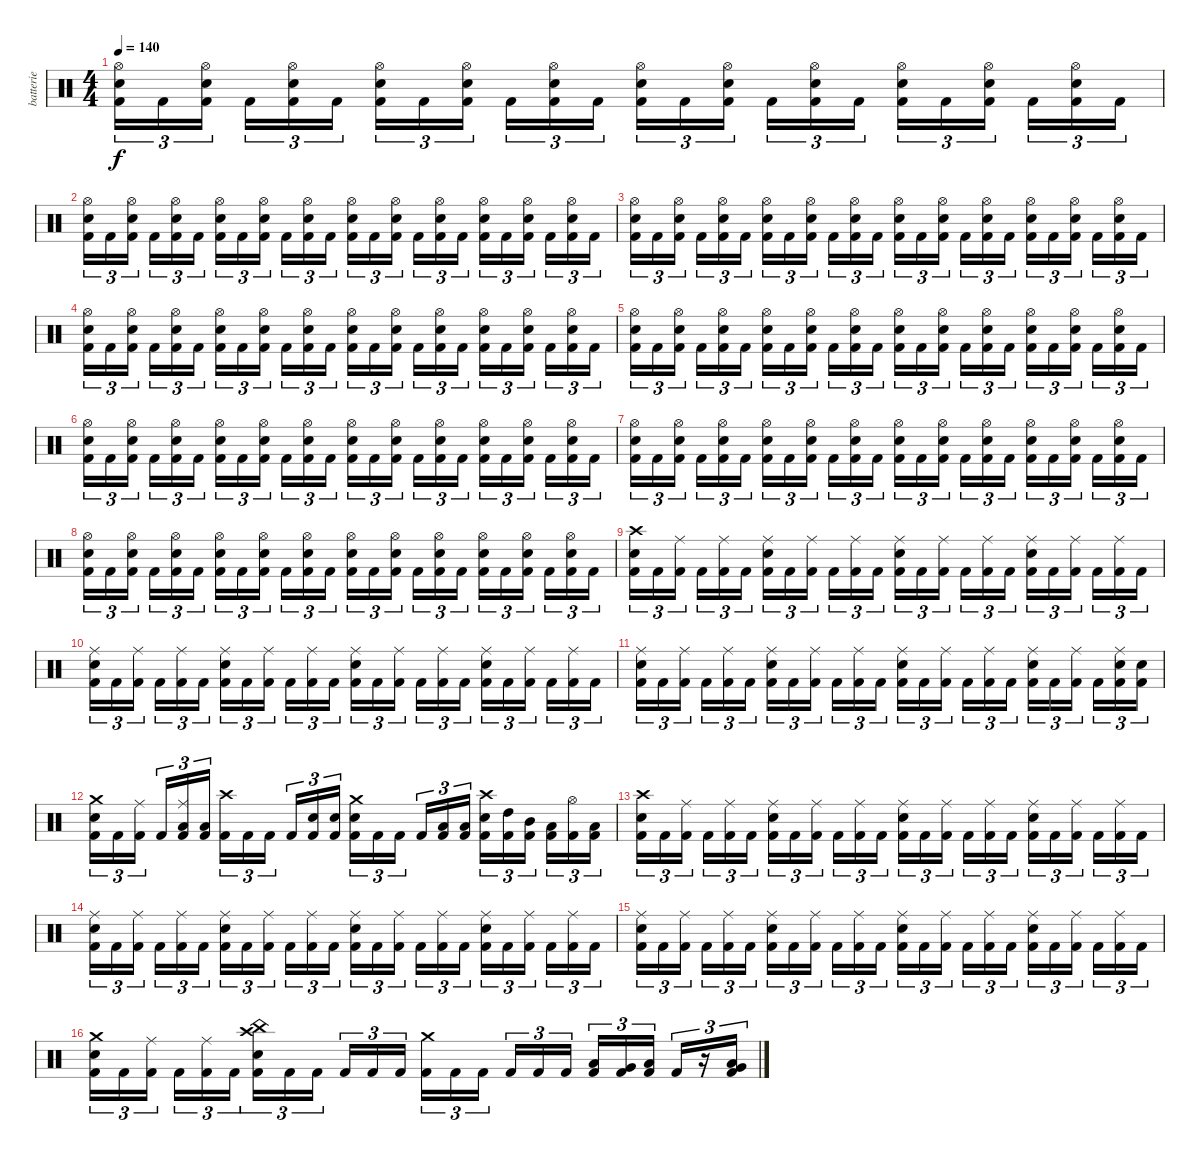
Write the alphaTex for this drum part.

\track ("batterie" "batterie") {instrument percussion}
\staff {score}
\articulation defaults
\ts (4 4)
\tempo 140
\clef neutral
\ks c
("Hi-Hat (open)" "Electric Snare (hit)" "Kick (hit) 2").16{tu (3 2) dy f} "Kick (hit) 2".16{tu (3 2)} ("Hi-Hat (open)" "Electric Snare (hit)" "Kick (hit) 2").16{tu (3 2)} "Kick (hit) 2".16{tu (3 2)} ("Hi-Hat (open)" "Electric Snare (hit)" "Kick (hit) 2").16{tu (3 2)} "Kick (hit) 2".16{tu (3 2)} ("Hi-Hat (open)" "Electric Snare (hit)" "Kick (hit) 2").16{tu (3 2)} "Kick (hit) 2".16{tu (3 2)} ("Hi-Hat (open)" "Electric Snare (hit)" "Kick (hit) 2").16{tu (3 2)} "Kick (hit) 2".16{tu (3 2)} ("Hi-Hat (open)" "Electric Snare (hit)" "Kick (hit) 2").16{tu (3 2)} "Kick (hit) 2".16{tu (3 2)} ("Hi-Hat (open)" "Electric Snare (hit)" "Kick (hit) 2").16{tu (3 2)} "Kick (hit) 2".16{tu (3 2)} ("Hi-Hat (open)" "Electric Snare (hit)" "Kick (hit) 2").16{tu (3 2)} "Kick (hit) 2".16{tu (3 2)} ("Hi-Hat (open)" "Electric Snare (hit)" "Kick (hit) 2").16{tu (3 2)} "Kick (hit) 2".16{tu (3 2)} ("Hi-Hat (open)" "Electric Snare (hit)" "Kick (hit) 2").16{tu (3 2)} "Kick (hit) 2".16{tu (3 2)} ("Hi-Hat (open)" "Electric Snare (hit)" "Kick (hit) 2").16{tu (3 2)} "Kick (hit) 2".16{tu (3 2)} ("Hi-Hat (open)" "Electric Snare (hit)" "Kick (hit) 2").16{tu (3 2)} "Kick (hit) 2".16{tu (3 2)} |
("Hi-Hat (open)" "Electric Snare (hit)" "Kick (hit) 2").16{tu (3 2)} "Kick (hit) 2".16{tu (3 2)} ("Hi-Hat (open)" "Electric Snare (hit)" "Kick (hit) 2").16{tu (3 2)} "Kick (hit) 2".16{tu (3 2)} ("Hi-Hat (open)" "Electric Snare (hit)" "Kick (hit) 2").16{tu (3 2)} "Kick (hit) 2".16{tu (3 2)} ("Hi-Hat (open)" "Electric Snare (hit)" "Kick (hit) 2").16{tu (3 2)} "Kick (hit) 2".16{tu (3 2)} ("Hi-Hat (open)" "Electric Snare (hit)" "Kick (hit) 2").16{tu (3 2)} "Kick (hit) 2".16{tu (3 2)} ("Hi-Hat (open)" "Electric Snare (hit)" "Kick (hit) 2").16{tu (3 2)} "Kick (hit) 2".16{tu (3 2)} ("Hi-Hat (open)" "Electric Snare (hit)" "Kick (hit) 2").16{tu (3 2)} "Kick (hit) 2".16{tu (3 2)} ("Hi-Hat (open)" "Electric Snare (hit)" "Kick (hit) 2").16{tu (3 2)} "Kick (hit) 2".16{tu (3 2)} ("Hi-Hat (open)" "Electric Snare (hit)" "Kick (hit) 2").16{tu (3 2)} "Kick (hit) 2".16{tu (3 2)} ("Hi-Hat (open)" "Electric Snare (hit)" "Kick (hit) 2").16{tu (3 2)} "Kick (hit) 2".16{tu (3 2)} ("Hi-Hat (open)" "Electric Snare (hit)" "Kick (hit) 2").16{tu (3 2)} "Kick (hit) 2".16{tu (3 2)} ("Hi-Hat (open)" "Electric Snare (hit)" "Kick (hit) 2").16{tu (3 2)} "Kick (hit) 2".16{tu (3 2)} |
("Hi-Hat (open)" "Electric Snare (hit)" "Kick (hit) 2").16{tu (3 2)} "Kick (hit) 2".16{tu (3 2)} ("Hi-Hat (open)" "Electric Snare (hit)" "Kick (hit) 2").16{tu (3 2)} "Kick (hit) 2".16{tu (3 2)} ("Hi-Hat (open)" "Electric Snare (hit)" "Kick (hit) 2").16{tu (3 2)} "Kick (hit) 2".16{tu (3 2)} ("Hi-Hat (open)" "Electric Snare (hit)" "Kick (hit) 2").16{tu (3 2)} "Kick (hit) 2".16{tu (3 2)} ("Hi-Hat (open)" "Electric Snare (hit)" "Kick (hit) 2").16{tu (3 2)} "Kick (hit) 2".16{tu (3 2)} ("Hi-Hat (open)" "Electric Snare (hit)" "Kick (hit) 2").16{tu (3 2)} "Kick (hit) 2".16{tu (3 2)} ("Hi-Hat (open)" "Electric Snare (hit)" "Kick (hit) 2").16{tu (3 2)} "Kick (hit) 2".16{tu (3 2)} ("Hi-Hat (open)" "Electric Snare (hit)" "Kick (hit) 2").16{tu (3 2)} "Kick (hit) 2".16{tu (3 2)} ("Hi-Hat (open)" "Electric Snare (hit)" "Kick (hit) 2").16{tu (3 2)} "Kick (hit) 2".16{tu (3 2)} ("Hi-Hat (open)" "Electric Snare (hit)" "Kick (hit) 2").16{tu (3 2)} "Kick (hit) 2".16{tu (3 2)} ("Hi-Hat (open)" "Electric Snare (hit)" "Kick (hit) 2").16{tu (3 2)} "Kick (hit) 2".16{tu (3 2)} ("Hi-Hat (open)" "Electric Snare (hit)" "Kick (hit) 2").16{tu (3 2)} "Kick (hit) 2".16{tu (3 2)} |
("Hi-Hat (open)" "Electric Snare (hit)" "Kick (hit) 2").16{tu (3 2)} "Kick (hit) 2".16{tu (3 2)} ("Hi-Hat (open)" "Electric Snare (hit)" "Kick (hit) 2").16{tu (3 2)} "Kick (hit) 2".16{tu (3 2)} ("Hi-Hat (open)" "Electric Snare (hit)" "Kick (hit) 2").16{tu (3 2)} "Kick (hit) 2".16{tu (3 2)} ("Hi-Hat (open)" "Electric Snare (hit)" "Kick (hit) 2").16{tu (3 2)} "Kick (hit) 2".16{tu (3 2)} ("Hi-Hat (open)" "Electric Snare (hit)" "Kick (hit) 2").16{tu (3 2)} "Kick (hit) 2".16{tu (3 2)} ("Hi-Hat (open)" "Electric Snare (hit)" "Kick (hit) 2").16{tu (3 2)} "Kick (hit) 2".16{tu (3 2)} ("Hi-Hat (open)" "Electric Snare (hit)" "Kick (hit) 2").16{tu (3 2)} "Kick (hit) 2".16{tu (3 2)} ("Hi-Hat (open)" "Electric Snare (hit)" "Kick (hit) 2").16{tu (3 2)} "Kick (hit) 2".16{tu (3 2)} ("Hi-Hat (open)" "Electric Snare (hit)" "Kick (hit) 2").16{tu (3 2)} "Kick (hit) 2".16{tu (3 2)} ("Hi-Hat (open)" "Electric Snare (hit)" "Kick (hit) 2").16{tu (3 2)} "Kick (hit) 2".16{tu (3 2)} ("Hi-Hat (open)" "Electric Snare (hit)" "Kick (hit) 2").16{tu (3 2)} "Kick (hit) 2".16{tu (3 2)} ("Hi-Hat (open)" "Electric Snare (hit)" "Kick (hit) 2").16{tu (3 2)} "Kick (hit) 2".16{tu (3 2)} |
("Hi-Hat (open)" "Electric Snare (hit)" "Kick (hit) 2").16{tu (3 2)} "Kick (hit) 2".16{tu (3 2)} ("Hi-Hat (open)" "Electric Snare (hit)" "Kick (hit) 2").16{tu (3 2)} "Kick (hit) 2".16{tu (3 2)} ("Hi-Hat (open)" "Electric Snare (hit)" "Kick (hit) 2").16{tu (3 2)} "Kick (hit) 2".16{tu (3 2)} ("Hi-Hat (open)" "Electric Snare (hit)" "Kick (hit) 2").16{tu (3 2)} "Kick (hit) 2".16{tu (3 2)} ("Hi-Hat (open)" "Electric Snare (hit)" "Kick (hit) 2").16{tu (3 2)} "Kick (hit) 2".16{tu (3 2)} ("Hi-Hat (open)" "Electric Snare (hit)" "Kick (hit) 2").16{tu (3 2)} "Kick (hit) 2".16{tu (3 2)} ("Hi-Hat (open)" "Electric Snare (hit)" "Kick (hit) 2").16{tu (3 2)} "Kick (hit) 2".16{tu (3 2)} ("Hi-Hat (open)" "Electric Snare (hit)" "Kick (hit) 2").16{tu (3 2)} "Kick (hit) 2".16{tu (3 2)} ("Hi-Hat (open)" "Electric Snare (hit)" "Kick (hit) 2").16{tu (3 2)} "Kick (hit) 2".16{tu (3 2)} ("Hi-Hat (open)" "Electric Snare (hit)" "Kick (hit) 2").16{tu (3 2)} "Kick (hit) 2".16{tu (3 2)} ("Hi-Hat (open)" "Electric Snare (hit)" "Kick (hit) 2").16{tu (3 2)} "Kick (hit) 2".16{tu (3 2)} ("Hi-Hat (open)" "Electric Snare (hit)" "Kick (hit) 2").16{tu (3 2)} "Kick (hit) 2".16{tu (3 2)} |
("Hi-Hat (open)" "Electric Snare (hit)" "Kick (hit) 2").16{tu (3 2)} "Kick (hit) 2".16{tu (3 2)} ("Hi-Hat (open)" "Electric Snare (hit)" "Kick (hit) 2").16{tu (3 2)} "Kick (hit) 2".16{tu (3 2)} ("Hi-Hat (open)" "Electric Snare (hit)" "Kick (hit) 2").16{tu (3 2)} "Kick (hit) 2".16{tu (3 2)} ("Hi-Hat (open)" "Electric Snare (hit)" "Kick (hit) 2").16{tu (3 2)} "Kick (hit) 2".16{tu (3 2)} ("Hi-Hat (open)" "Electric Snare (hit)" "Kick (hit) 2").16{tu (3 2)} "Kick (hit) 2".16{tu (3 2)} ("Hi-Hat (open)" "Electric Snare (hit)" "Kick (hit) 2").16{tu (3 2)} "Kick (hit) 2".16{tu (3 2)} ("Hi-Hat (open)" "Electric Snare (hit)" "Kick (hit) 2").16{tu (3 2)} "Kick (hit) 2".16{tu (3 2)} ("Hi-Hat (open)" "Electric Snare (hit)" "Kick (hit) 2").16{tu (3 2)} "Kick (hit) 2".16{tu (3 2)} ("Hi-Hat (open)" "Electric Snare (hit)" "Kick (hit) 2").16{tu (3 2)} "Kick (hit) 2".16{tu (3 2)} ("Hi-Hat (open)" "Electric Snare (hit)" "Kick (hit) 2").16{tu (3 2)} "Kick (hit) 2".16{tu (3 2)} ("Hi-Hat (open)" "Electric Snare (hit)" "Kick (hit) 2").16{tu (3 2)} "Kick (hit) 2".16{tu (3 2)} ("Hi-Hat (open)" "Electric Snare (hit)" "Kick (hit) 2").16{tu (3 2)} "Kick (hit) 2".16{tu (3 2)} |
("Hi-Hat (open)" "Electric Snare (hit)" "Kick (hit) 2").16{tu (3 2)} "Kick (hit) 2".16{tu (3 2)} ("Hi-Hat (open)" "Electric Snare (hit)" "Kick (hit) 2").16{tu (3 2)} "Kick (hit) 2".16{tu (3 2)} ("Hi-Hat (open)" "Electric Snare (hit)" "Kick (hit) 2").16{tu (3 2)} "Kick (hit) 2".16{tu (3 2)} ("Hi-Hat (open)" "Electric Snare (hit)" "Kick (hit) 2").16{tu (3 2)} "Kick (hit) 2".16{tu (3 2)} ("Hi-Hat (open)" "Electric Snare (hit)" "Kick (hit) 2").16{tu (3 2)} "Kick (hit) 2".16{tu (3 2)} ("Hi-Hat (open)" "Electric Snare (hit)" "Kick (hit) 2").16{tu (3 2)} "Kick (hit) 2".16{tu (3 2)} ("Hi-Hat (open)" "Electric Snare (hit)" "Kick (hit) 2").16{tu (3 2)} "Kick (hit) 2".16{tu (3 2)} ("Hi-Hat (open)" "Electric Snare (hit)" "Kick (hit) 2").16{tu (3 2)} "Kick (hit) 2".16{tu (3 2)} ("Hi-Hat (open)" "Electric Snare (hit)" "Kick (hit) 2").16{tu (3 2)} "Kick (hit) 2".16{tu (3 2)} ("Hi-Hat (open)" "Electric Snare (hit)" "Kick (hit) 2").16{tu (3 2)} "Kick (hit) 2".16{tu (3 2)} ("Hi-Hat (open)" "Electric Snare (hit)" "Kick (hit) 2").16{tu (3 2)} "Kick (hit) 2".16{tu (3 2)} ("Hi-Hat (open)" "Electric Snare (hit)" "Kick (hit) 2").16{tu (3 2)} "Kick (hit) 2".16{tu (3 2)} |
("Hi-Hat (open)" "Electric Snare (hit)" "Kick (hit) 2").16{tu (3 2)} "Kick (hit) 2".16{tu (3 2)} ("Hi-Hat (open)" "Electric Snare (hit)" "Kick (hit) 2").16{tu (3 2)} "Kick (hit) 2".16{tu (3 2)} ("Hi-Hat (open)" "Electric Snare (hit)" "Kick (hit) 2").16{tu (3 2)} "Kick (hit) 2".16{tu (3 2)} ("Hi-Hat (open)" "Electric Snare (hit)" "Kick (hit) 2").16{tu (3 2)} "Kick (hit) 2".16{tu (3 2)} ("Hi-Hat (open)" "Electric Snare (hit)" "Kick (hit) 2").16{tu (3 2)} "Kick (hit) 2".16{tu (3 2)} ("Hi-Hat (open)" "Electric Snare (hit)" "Kick (hit) 2").16{tu (3 2)} "Kick (hit) 2".16{tu (3 2)} ("Hi-Hat (open)" "Electric Snare (hit)" "Kick (hit) 2").16{tu (3 2)} "Kick (hit) 2".16{tu (3 2)} ("Hi-Hat (open)" "Electric Snare (hit)" "Kick (hit) 2").16{tu (3 2)} "Kick (hit) 2".16{tu (3 2)} ("Hi-Hat (open)" "Electric Snare (hit)" "Kick (hit) 2").16{tu (3 2)} "Kick (hit) 2".16{tu (3 2)} ("Hi-Hat (open)" "Electric Snare (hit)" "Kick (hit) 2").16{tu (3 2)} "Kick (hit) 2".16{tu (3 2)} ("Hi-Hat (open)" "Electric Snare (hit)" "Kick (hit) 2").16{tu (3 2)} "Kick (hit) 2".16{tu (3 2)} ("Hi-Hat (open)" "Electric Snare (hit)" "Kick (hit) 2").16{tu (3 2)} "Kick (hit) 2".16{tu (3 2)} |
("Crash high (hit)" "Electric Snare (hit)" "Kick (hit) 2").16{tu (3 2)} "Kick (hit) 2".16{tu (3 2)} ("Ride (middle)" "Kick (hit) 2").16{tu (3 2)} "Kick (hit) 2".16{tu (3 2)} ("Ride (middle)" "Kick (hit) 2").16{tu (3 2)} "Kick (hit) 2".16{tu (3 2)} ("Ride (middle)" "Electric Snare (hit)" "Kick (hit) 2").16{tu (3 2)} "Kick (hit) 2".16{tu (3 2)} ("Ride (middle)" "Kick (hit) 2").16{tu (3 2)} "Kick (hit) 2".16{tu (3 2)} ("Ride (middle)" "Kick (hit) 2").16{tu (3 2)} "Kick (hit) 2".16{tu (3 2)} ("Ride (middle)" "Electric Snare (hit)" "Kick (hit) 2").16{tu (3 2)} "Kick (hit) 2".16{tu (3 2)} ("Ride (middle)" "Kick (hit) 2").16{tu (3 2)} "Kick (hit) 2".16{tu (3 2)} ("Ride (middle)" "Kick (hit) 2").16{tu (3 2)} "Kick (hit) 2".16{tu (3 2)} ("Ride (middle)" "Electric Snare (hit)" "Kick (hit) 2").16{tu (3 2)} "Kick (hit) 2".16{tu (3 2)} ("Ride (middle)" "Kick (hit) 2").16{tu (3 2)} "Kick (hit) 2".16{tu (3 2)} ("Ride (middle)" "Kick (hit) 2").16{tu (3 2)} "Kick (hit) 2".16{tu (3 2)} |
("Ride (middle)" "Electric Snare (hit)" "Kick (hit) 2").16{tu (3 2)} "Kick (hit) 2".16{tu (3 2)} ("Ride (middle)" "Kick (hit) 2").16{tu (3 2)} "Kick (hit) 2".16{tu (3 2)} ("Ride (middle)" "Kick (hit) 2").16{tu (3 2)} "Kick (hit) 2".16{tu (3 2)} ("Ride (middle)" "Electric Snare (hit)" "Kick (hit) 2").16{tu (3 2)} "Kick (hit) 2".16{tu (3 2)} ("Ride (middle)" "Kick (hit) 2").16{tu (3 2)} "Kick (hit) 2".16{tu (3 2)} ("Ride (middle)" "Kick (hit) 2").16{tu (3 2)} "Kick (hit) 2".16{tu (3 2)} ("Ride (middle)" "Electric Snare (hit)" "Kick (hit) 2").16{tu (3 2)} "Kick (hit) 2".16{tu (3 2)} ("Ride (middle)" "Kick (hit) 2").16{tu (3 2)} "Kick (hit) 2".16{tu (3 2)} ("Ride (middle)" "Kick (hit) 2").16{tu (3 2)} "Kick (hit) 2".16{tu (3 2)} ("Ride (middle)" "Electric Snare (hit)" "Kick (hit) 2").16{tu (3 2)} "Kick (hit) 2".16{tu (3 2)} ("Ride (middle)" "Kick (hit) 2").16{tu (3 2)} "Kick (hit) 2".16{tu (3 2)} ("Ride (middle)" "Kick (hit) 2").16{tu (3 2)} "Kick (hit) 2".16{tu (3 2)} |
("Ride (middle)" "Electric Snare (hit)" "Kick (hit) 2").16{tu (3 2)} "Kick (hit) 2".16{tu (3 2)} ("Ride (middle)" "Kick (hit) 2").16{tu (3 2)} "Kick (hit) 2".16{tu (3 2)} ("Ride (middle)" "Kick (hit) 2").16{tu (3 2)} "Kick (hit) 2".16{tu (3 2)} ("Ride (middle)" "Electric Snare (hit)" "Kick (hit) 2").16{tu (3 2)} "Kick (hit) 2".16{tu (3 2)} ("Ride (middle)" "Kick (hit) 2").16{tu (3 2)} "Kick (hit) 2".16{tu (3 2)} ("Ride (middle)" "Kick (hit) 2").16{tu (3 2)} "Kick (hit) 2".16{tu (3 2)} ("Ride (middle)" "Electric Snare (hit)" "Kick (hit) 2").16{tu (3 2)} "Kick (hit) 2".16{tu (3 2)} ("Ride (middle)" "Kick (hit) 2").16{tu (3 2)} "Kick (hit) 2".16{tu (3 2)} ("Ride (middle)" "Kick (hit) 2").16{tu (3 2)} "Kick (hit) 2".16{tu (3 2)} ("Ride (middle)" "Electric Snare (hit)" "Kick (hit) 2").16{tu (3 2)} "Kick (hit) 2".16{tu (3 2)} ("Ride (middle)" "Kick (hit) 2").16{tu (3 2)} "Kick (hit) 2".16{tu (3 2)} ("Ride (middle)" "Electric Snare (hit)" "Kick (hit) 2").16{tu (3 2)} ("Electric Snare (hit)" "Kick (hit) 2").16{tu (3 2)} |
("Crash medium (hit)" "Electric Snare (hit)" "Kick (hit) 2").16{tu (3 2)} "Kick (hit) 2".16{tu (3 2)} ("Ride (middle)" "Kick (hit) 2").16{tu (3 2)} "Kick (hit) 2".16{tu (3 2)} ("Ride (middle)" "Low Tom (hit)" "Kick (hit) 2").16{tu (3 2)} ("Low Tom (hit)" "Kick (hit) 2").16{tu (3 2)} ("Crash high (hit)" "Kick (hit) 2").16{tu (3 2)} "Kick (hit) 2".16{tu (3 2)} "Kick (hit) 2".16{tu (3 2)} "Kick (hit) 2".16{tu (3 2)} ("Electric Snare (hit)" "Kick (hit) 2").16{tu (3 2)} ("Electric Snare (hit)" "Kick (hit) 2").16{tu (3 2)} ("Crash medium (hit)" "Electric Snare (hit)" "Kick (hit) 2").16{tu (3 2)} "Kick (hit) 2".16{tu (3 2)} "Kick (hit) 2".16{tu (3 2)} "Kick (hit) 2".16{tu (3 2)} ("Low Tom (hit)" "Kick (hit) 2").16{tu (3 2)} ("Low Tom (hit)" "Kick (hit) 2").16{tu (3 2)} ("Crash high (hit)" "Electric Snare (hit)" "Kick (hit) 2").16{tu (3 2)} ("High Tom (hit)" "Kick (hit) 2").16{tu (3 2)} ("Mid Tom (hit)" "Kick (hit) 2").16{tu (3 2)} ("Low Tom (hit)" "Kick (hit) 2").16{tu (3 2)} ("Hi-Hat (open)" "Kick (hit) 2").16{tu (3 2)} ("Low Floor Tom (hit)" "Kick (hit) 2").16{tu (3 2)} |
("Crash high (hit)" "Electric Snare (hit)" "Kick (hit) 2").16{tu (3 2)} "Kick (hit) 2".16{tu (3 2)} ("Ride (middle)" "Kick (hit) 2").16{tu (3 2)} "Kick (hit) 2".16{tu (3 2)} ("Ride (middle)" "Kick (hit) 2").16{tu (3 2)} "Kick (hit) 2".16{tu (3 2)} ("Ride (middle)" "Electric Snare (hit)" "Kick (hit) 2").16{tu (3 2)} "Kick (hit) 2".16{tu (3 2)} ("Ride (middle)" "Kick (hit) 2").16{tu (3 2)} "Kick (hit) 2".16{tu (3 2)} ("Ride (middle)" "Kick (hit) 2").16{tu (3 2)} "Kick (hit) 2".16{tu (3 2)} ("Ride (middle)" "Electric Snare (hit)" "Kick (hit) 2").16{tu (3 2)} "Kick (hit) 2".16{tu (3 2)} ("Ride (middle)" "Kick (hit) 2").16{tu (3 2)} "Kick (hit) 2".16{tu (3 2)} ("Ride (middle)" "Kick (hit) 2").16{tu (3 2)} "Kick (hit) 2".16{tu (3 2)} ("Ride (middle)" "Electric Snare (hit)" "Kick (hit) 2").16{tu (3 2)} "Kick (hit) 2".16{tu (3 2)} ("Ride (middle)" "Kick (hit) 2").16{tu (3 2)} "Kick (hit) 2".16{tu (3 2)} ("Ride (middle)" "Kick (hit) 2").16{tu (3 2)} "Kick (hit) 2".16{tu (3 2)} |
("Ride (middle)" "Electric Snare (hit)" "Kick (hit) 2").16{tu (3 2)} "Kick (hit) 2".16{tu (3 2)} ("Ride (middle)" "Kick (hit) 2").16{tu (3 2)} "Kick (hit) 2".16{tu (3 2)} ("Ride (middle)" "Kick (hit) 2").16{tu (3 2)} "Kick (hit) 2".16{tu (3 2)} ("Ride (middle)" "Electric Snare (hit)" "Kick (hit) 2").16{tu (3 2)} "Kick (hit) 2".16{tu (3 2)} ("Ride (middle)" "Kick (hit) 2").16{tu (3 2)} "Kick (hit) 2".16{tu (3 2)} ("Ride (middle)" "Kick (hit) 2").16{tu (3 2)} "Kick (hit) 2".16{tu (3 2)} ("Ride (middle)" "Electric Snare (hit)" "Kick (hit) 2").16{tu (3 2)} "Kick (hit) 2".16{tu (3 2)} ("Ride (middle)" "Kick (hit) 2").16{tu (3 2)} "Kick (hit) 2".16{tu (3 2)} ("Ride (middle)" "Kick (hit) 2").16{tu (3 2)} "Kick (hit) 2".16{tu (3 2)} ("Ride (middle)" "Electric Snare (hit)" "Kick (hit) 2").16{tu (3 2)} "Kick (hit) 2".16{tu (3 2)} ("Ride (middle)" "Kick (hit) 2").16{tu (3 2)} "Kick (hit) 2".16{tu (3 2)} ("Ride (middle)" "Kick (hit) 2").16{tu (3 2)} "Kick (hit) 2".16{tu (3 2)} |
("Ride (middle)" "Electric Snare (hit)" "Kick (hit) 2").16{tu (3 2)} "Kick (hit) 2".16{tu (3 2)} ("Ride (middle)" "Kick (hit) 2").16{tu (3 2)} "Kick (hit) 2".16{tu (3 2)} ("Ride (middle)" "Kick (hit) 2").16{tu (3 2)} "Kick (hit) 2".16{tu (3 2)} ("Ride (middle)" "Electric Snare (hit)" "Kick (hit) 2").16{tu (3 2)} "Kick (hit) 2".16{tu (3 2)} ("Ride (middle)" "Kick (hit) 2").16{tu (3 2)} "Kick (hit) 2".16{tu (3 2)} ("Ride (middle)" "Kick (hit) 2").16{tu (3 2)} "Kick (hit) 2".16{tu (3 2)} ("Ride (middle)" "Electric Snare (hit)" "Kick (hit) 2").16{tu (3 2)} "Kick (hit) 2".16{tu (3 2)} ("Ride (middle)" "Kick (hit) 2").16{tu (3 2)} "Kick (hit) 2".16{tu (3 2)} ("Ride (middle)" "Kick (hit) 2").16{tu (3 2)} "Kick (hit) 2".16{tu (3 2)} ("Ride (middle)" "Electric Snare (hit)" "Kick (hit) 2").16{tu (3 2)} "Kick (hit) 2".16{tu (3 2)} ("Ride (middle)" "Kick (hit) 2").16{tu (3 2)} "Kick (hit) 2".16{tu (3 2)} ("Ride (middle)" "Kick (hit) 2").16{tu (3 2)} "Kick (hit) 2".16{tu (3 2)} |
("Crash medium (hit)" "Electric Snare (hit)" "Kick (hit) 2").16{tu (3 2)} "Kick (hit) 2".16{tu (3 2)} ("Ride (middle)" "Kick (hit) 2").16{tu (3 2)} "Kick (hit) 2".16{tu (3 2)} ("Ride (middle)" "Kick (hit) 2").16{tu (3 2)} "Kick (hit) 2".16{tu (3 2)} ("China (hit)" "Crash high (hit)" "Electric Snare (hit)" "Kick (hit) 2").16{tu (3 2)} "Kick (hit) 2".16{tu (3 2)} "Kick (hit) 2".16{tu (3 2)} "Kick (hit) 2".16{tu (3 2)} "Kick (hit) 2".16{tu (3 2)} "Kick (hit) 2".16{tu (3 2)} ("Crash medium (hit)" "Kick (hit) 2").16{tu (3 2)} "Kick (hit) 2".16{tu (3 2)} "Kick (hit) 2".16{tu (3 2)} "Kick (hit) 2".16{tu (3 2)} "Kick (hit) 2".16{tu (3 2)} "Kick (hit) 2".16{tu (3 2)} ("Low Tom (hit)" "Kick (hit) 2").16{tu (3 2)} ("Very Low Tom (hit)" "Kick (hit) 2").16{tu (3 2)} ("Low Tom (hit)" "Kick (hit) 2").16{tu (3 2)} "Kick (hit) 2".16{tu (3 2)} r.16{tu (3 2)} ("Very Low Tom (hit)" "Low Tom (hit)" "Kick (hit) 2").16{tu (3 2)}
